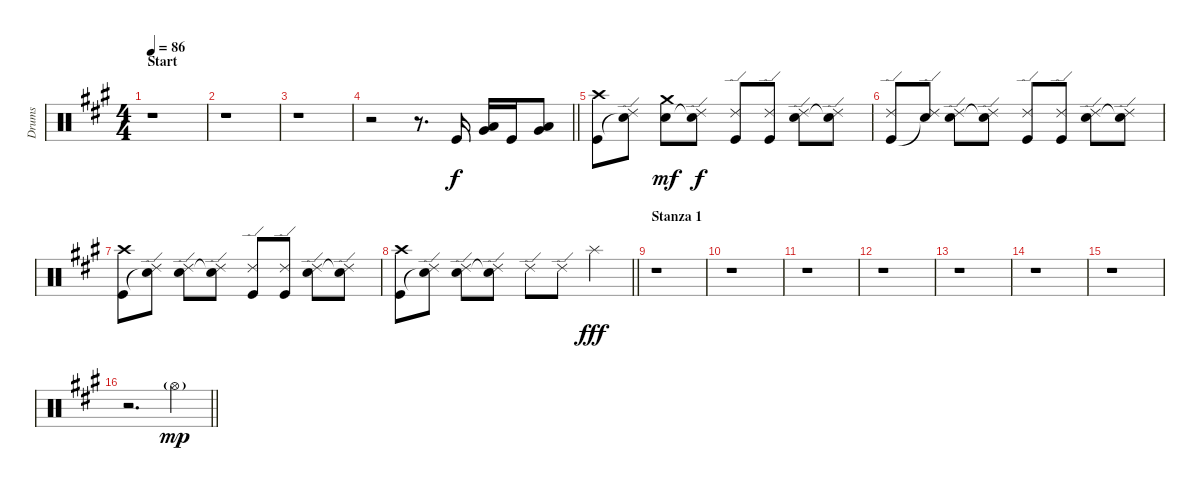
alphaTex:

\track ("Drums" "Drums") {instrument percussion}
\staff {score}
\articulation defaults
\ts (4 4)
\section ("" "Start")
\tempo 86
\clef neutral
\ks a
r.1{dy f} |
r.1 |
r.1 |
\barLineRight lightlight
r.2 r.8{d} "Kick (hit)".16 ("Very Low Tom (hit)" "Low Tom (hit)").16 "Kick (hit)".16 ("Low Floor Tom (hit)" "Very Low Tom (hit)").8 |
("Crash high (hit)" "Kick (hit)").8 ("Ride (edge) 2" "Snare (hit)"{t}).8 ("Crash medium (hit)" "Electric Snare (hit)").8{dy mf} ("Ride (edge) 2" "Snare (hit)"{t}).8{dy f} ("Ride (edge) 2" "Kick (hit)").8 ("Ride (edge) 2" "Kick (hit)").8 ("Ride (edge) 2" "Electric Snare (hit)").8 ("Ride (edge) 2" "Snare (hit)"{t}).8 |
("Ride (edge) 2" "Kick (hit)").8 ("Ride (edge) 2" "Snare (hit)"{t}).8 ("Ride (edge) 2" "Electric Snare (hit)").8 ("Ride (edge) 2" "Snare (hit)"{t}).8 ("Ride (edge) 2" "Kick (hit)").8 ("Ride (edge) 2" "Kick (hit)").8 ("Ride (edge) 2" "Electric Snare (hit)").8 ("Ride (edge) 2" "Snare (hit)"{t}).8 |
("Crash high (hit)" "Kick (hit)").8 ("Ride (edge) 2" "Snare (hit)"{t}).8 ("Ride (edge) 2" "Electric Snare (hit)").8 ("Ride (edge) 2" "Snare (hit)"{t}).8 ("Ride (edge) 2" "Kick (hit)").8 ("Ride (edge) 2" "Kick (hit)").8 ("Ride (edge) 2" "Electric Snare (hit)").8 ("Ride (edge) 2" "Snare (hit)"{t}).8 |
\barLineRight lightlight
("Crash high (hit)" "Kick (hit)").8 ("Ride (edge) 2" "Snare (hit)"{t}).8 ("Ride (edge) 2" "Electric Snare (hit)").8 ("Ride (edge) 2" "Snare (hit)"{t}).8 "Ride (edge) 2".8 "Ride (edge) 2".8 "Splash (hit)".4{dy fff} |
\section ("" "Stanza 1")
r.1 |
r.1 |
r.1 |
r.1 |
r.1 |
r.1 |
r.1 |
\barLineRight lightlight
r.2{d} "Hi-Hat (open)"{g}.4{dy mp}
